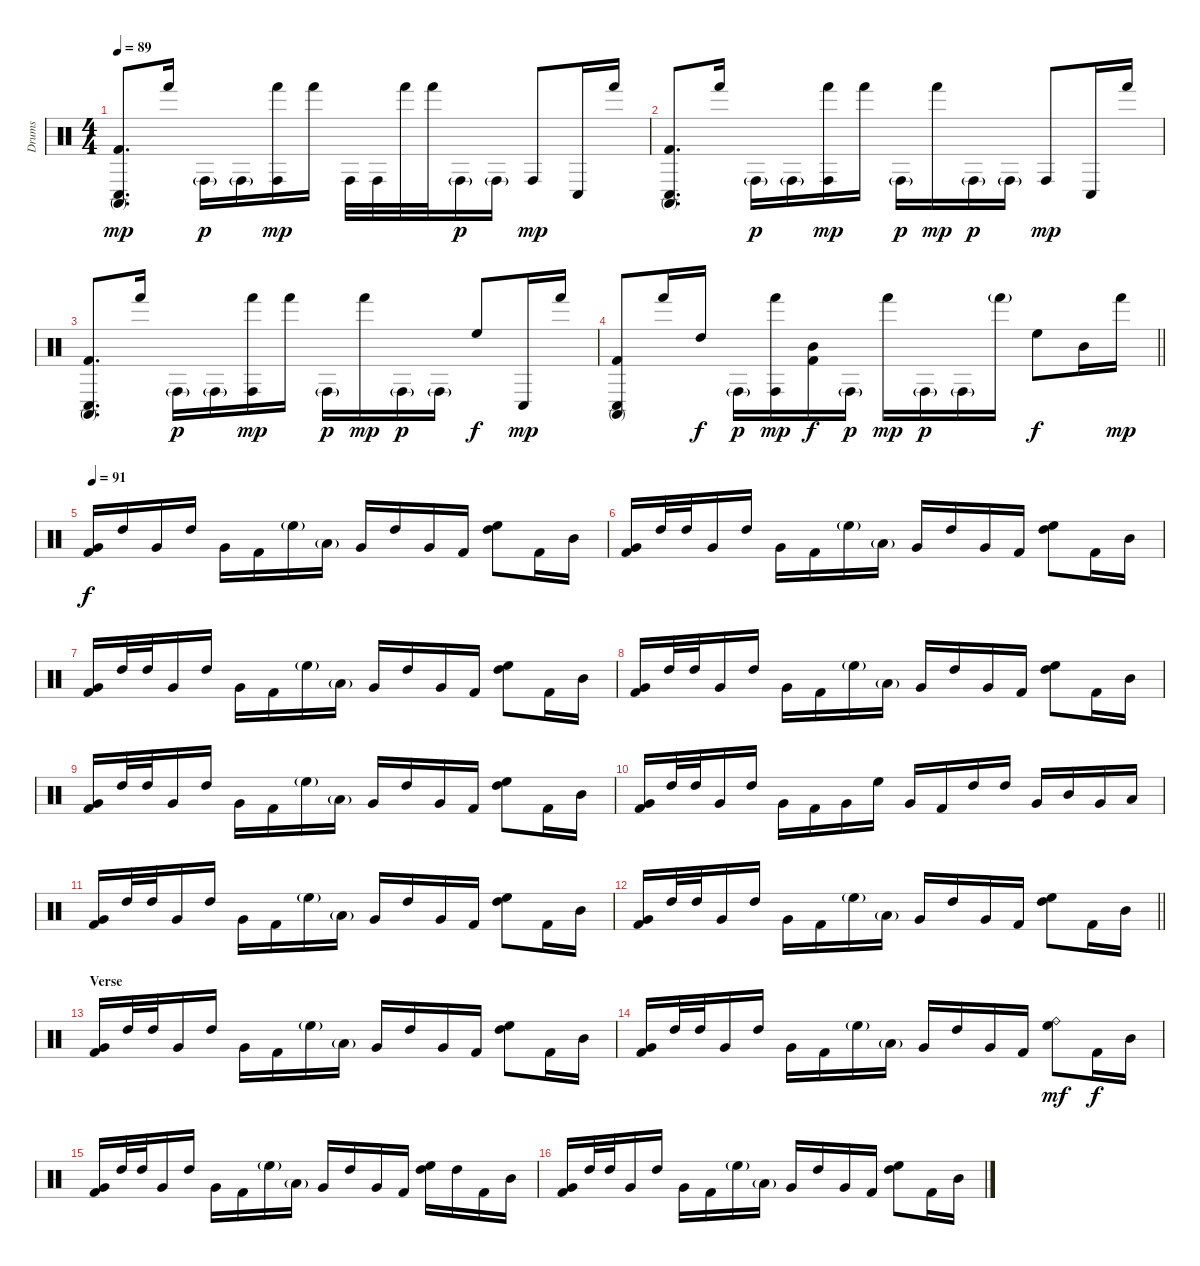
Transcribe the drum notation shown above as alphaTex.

\track ("Drums" "Drums") {instrument percussion}
\staff {score}
\articulation defaults
\ts (4 4)
\tempo 89
\clef neutral
\ks c
("Conga high (mute)" "Conga low (hit)" "Kick (hit) 2").8{d dy mp} "Hand (hit)".16 "Conga high (hit)"{g}.16{dy p} "Conga high (hit)"{g}.16 ("Hand (hit)" "Conga high (hit)").16{dy mp} "Hand (hit)".16 "Conga high (hit)".32 "Conga high (hit)".32 "Hand (hit)".32 "Hand (hit)".32 "Conga high (hit)"{g}.16{dy p} "Conga high (hit)"{g}.16 "Conga high (hit)".8{dy mp} "Conga low (hit)".16 "Hand (hit)".16 |
("Conga high (mute)" "Conga low (hit)" "Kick (hit) 2").8{d} "Hand (hit)".16 "Conga high (hit)"{g}.16{dy p} "Conga high (hit)"{g}.16 ("Hand (hit)" "Conga high (hit)").16{dy mp} "Hand (hit)".16 "Conga high (hit)"{g}.16{dy p} "Hand (hit)".16{dy mp} "Conga high (hit)"{g}.16{dy p} "Conga high (hit)"{g}.16 "Conga high (hit)".8{dy mp} "Conga low (hit)".16 "Hand (hit)".16 |
("Conga high (mute)" "Conga low (hit)" "Kick (hit) 2").8{d} "Hand (hit)".16 "Conga high (hit)"{g}.16{dy p} "Conga high (hit)"{g}.16 ("Hand (hit)" "Conga high (hit)").16{dy mp} "Hand (hit)".16 "Conga high (hit)"{g}.16{dy p} "Hand (hit)".16{dy mp} "Conga high (hit)"{g}.16{dy p} "Conga high (hit)"{g}.16 "High Floor Tom (hit)".8{dy f} "Conga low (hit)".16{dy mp} "Hand (hit)".16 |
\barLineRight lightlight
("Conga high (mute)" "Conga low (hit)" "Kick (hit) 2").8 "Hand (hit)".16 "High Tom (hit)".16{dy f} "Conga high (hit)"{g}.16{dy p} ("Hand (hit)" "Conga high (hit)").16{dy mp} ("Mid Tom (hit)" "Kick (hit) 2").16{dy f} "Conga high (hit)"{g}.16{dy p} "Hand (hit)".16{dy mp} "Conga high (hit)"{g}.16{dy p} "Conga high (hit)"{g}.16 "Hand (hit)"{g}.16 "High Floor Tom (hit)".8{dy f} "Mid Tom (hit)".16 "Hand (hit)".16{dy mp} |
\section ("" "")
\tempo 91
("Very Low Tom (hit)" "Kick (hit) 2").16{dy f} "High Tom (hit)".16 "Very Low Tom (hit)".16 "High Tom (hit)".16 "Very Low Tom (hit)".16 "Kick (hit) 2".16 "High Floor Tom (hit)"{g}.16 "Low Floor Tom (hit)"{g}.16 "Very Low Tom (hit)".16 "High Tom (hit)".16 "Very Low Tom (hit)".16 "Kick (hit) 2".16 ("High Floor Tom (hit)" "High Tom (hit)").8 "Kick (hit) 2".16 "Mid Tom (hit)".16 |
("Very Low Tom (hit)" "Kick (hit) 2").16 "High Tom (hit)".32 "High Tom (hit)".32 "Very Low Tom (hit)".16 "High Tom (hit)".16 "Very Low Tom (hit)".16 "Kick (hit) 2".16 "High Floor Tom (hit)"{g}.16 "Low Floor Tom (hit)"{g}.16 "Very Low Tom (hit)".16 "High Tom (hit)".16 "Very Low Tom (hit)".16 "Kick (hit) 2".16 ("High Floor Tom (hit)" "High Tom (hit)").8 "Kick (hit) 2".16 "Mid Tom (hit)".16 |
("Very Low Tom (hit)" "Kick (hit) 2").16 "High Tom (hit)".32 "High Tom (hit)".32 "Very Low Tom (hit)".16 "High Tom (hit)".16 "Very Low Tom (hit)".16 "Kick (hit) 2".16 "High Floor Tom (hit)"{g}.16 "Low Floor Tom (hit)"{g}.16 "Very Low Tom (hit)".16 "High Tom (hit)".16 "Very Low Tom (hit)".16 "Kick (hit) 2".16 ("High Floor Tom (hit)" "High Tom (hit)").8 "Kick (hit) 2".16 "Mid Tom (hit)".16 |
("Very Low Tom (hit)" "Kick (hit) 2").16 "High Tom (hit)".32 "High Tom (hit)".32 "Very Low Tom (hit)".16 "High Tom (hit)".16 "Very Low Tom (hit)".16 "Kick (hit) 2".16 "High Floor Tom (hit)"{g}.16 "Low Floor Tom (hit)"{g}.16 "Very Low Tom (hit)".16 "High Tom (hit)".16 "Very Low Tom (hit)".16 "Kick (hit) 2".16 ("High Floor Tom (hit)" "High Tom (hit)").8 "Kick (hit) 2".16 "Mid Tom (hit)".16 |
("Very Low Tom (hit)" "Kick (hit) 2").16 "High Tom (hit)".32 "High Tom (hit)".32 "Very Low Tom (hit)".16 "High Tom (hit)".16 "Very Low Tom (hit)".16 "Kick (hit) 2".16 "High Floor Tom (hit)"{g}.16 "Low Floor Tom (hit)"{g}.16 "Very Low Tom (hit)".16 "High Tom (hit)".16 "Very Low Tom (hit)".16 "Kick (hit) 2".16 ("High Floor Tom (hit)" "High Tom (hit)").8 "Kick (hit) 2".16 "Mid Tom (hit)".16 |
("Very Low Tom (hit)" "Kick (hit) 2").16 "High Tom (hit)".32 "High Tom (hit)".32 "Very Low Tom (hit)".16 "High Tom (hit)".16 "Very Low Tom (hit)".16 "Kick (hit) 2".16 "Very Low Tom (hit)".16 "High Floor Tom (hit)".16 "Very Low Tom (hit)".16 "Kick (hit) 2".16 "High Tom (hit)".16 "High Tom (hit)".16 "Very Low Tom (hit)".16 "Mid Tom (hit)".16 "Very Low Tom (hit)".16 "Low Floor Tom (hit)".16 |
("Very Low Tom (hit)" "Kick (hit) 2").16 "High Tom (hit)".32 "High Tom (hit)".32 "Very Low Tom (hit)".16 "High Tom (hit)".16 "Very Low Tom (hit)".16 "Kick (hit) 2".16 "High Floor Tom (hit)"{g}.16 "Low Floor Tom (hit)"{g}.16 "Very Low Tom (hit)".16 "High Tom (hit)".16 "Very Low Tom (hit)".16 "Kick (hit) 2".16 ("High Floor Tom (hit)" "High Tom (hit)").8 "Kick (hit) 2".16 "Mid Tom (hit)".16 |
\barLineRight lightlight
("Very Low Tom (hit)" "Kick (hit) 2").16 "High Tom (hit)".32 "High Tom (hit)".32 "Very Low Tom (hit)".16 "High Tom (hit)".16 "Very Low Tom (hit)".16 "Kick (hit) 2".16 "High Floor Tom (hit)"{g}.16 "Low Floor Tom (hit)"{g}.16 "Very Low Tom (hit)".16 "High Tom (hit)".16 "Very Low Tom (hit)".16 "Kick (hit) 2".16 ("High Floor Tom (hit)" "High Tom (hit)").8 "Kick (hit) 2".16 "Mid Tom (hit)".16 |
\section ("" "Verse")
("Very Low Tom (hit)" "Kick (hit) 2").16 "High Tom (hit)".32 "High Tom (hit)".32 "Very Low Tom (hit)".16 "High Tom (hit)".16 "Very Low Tom (hit)".16 "Kick (hit) 2".16 "High Floor Tom (hit)"{g}.16 "Low Floor Tom (hit)"{g}.16 "Very Low Tom (hit)".16 "High Tom (hit)".16 "Very Low Tom (hit)".16 "Kick (hit) 2".16 ("High Floor Tom (hit)" "High Tom (hit)").8 "Kick (hit) 2".16 "Mid Tom (hit)".16 |
("Very Low Tom (hit)" "Kick (hit) 2").16 "High Tom (hit)".32 "High Tom (hit)".32 "Very Low Tom (hit)".16 "High Tom (hit)".16 "Very Low Tom (hit)".16 "Kick (hit) 2".16 "High Floor Tom (hit)"{g}.16 "Low Floor Tom (hit)"{g}.16 "Very Low Tom (hit)".16 "High Tom (hit)".16 "Very Low Tom (hit)".16 "Kick (hit) 2".16 ("Ride (bell)" "High Floor Tom (hit)").8{dy mf} "Kick (hit) 2".16{dy f} "Mid Tom (hit)".16 |
("Very Low Tom (hit)" "Kick (hit) 2").16 "High Tom (hit)".32 "High Tom (hit)".32 "Very Low Tom (hit)".16 "High Tom (hit)".16 "Very Low Tom (hit)".16 "Kick (hit) 2".16 "High Floor Tom (hit)"{g}.16 "Low Floor Tom (hit)"{g}.16 "Very Low Tom (hit)".16 "High Tom (hit)".16 "Very Low Tom (hit)".16 "Kick (hit) 2".16 ("High Floor Tom (hit)" "High Tom (hit)").16 "High Tom (hit)".16 "Kick (hit) 2".16 "Mid Tom (hit)".16 |
("Very Low Tom (hit)" "Kick (hit) 2").16 "High Tom (hit)".32 "High Tom (hit)".32 "Very Low Tom (hit)".16 "High Tom (hit)".16 "Very Low Tom (hit)".16 "Kick (hit) 2".16 "High Floor Tom (hit)"{g}.16 "Low Floor Tom (hit)"{g}.16 "Very Low Tom (hit)".16 "High Tom (hit)".16 "Very Low Tom (hit)".16 "Kick (hit) 2".16 ("High Floor Tom (hit)" "High Tom (hit)").8 "Kick (hit) 2".16 "Mid Tom (hit)".16
